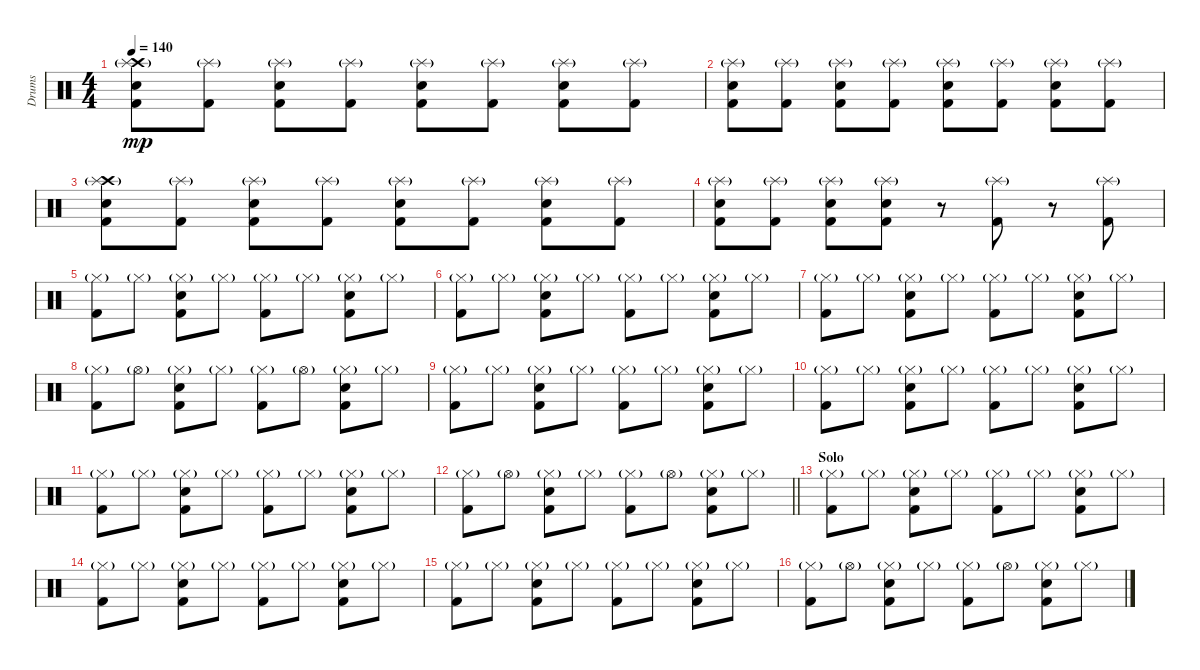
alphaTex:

\track ("Drums" "Drums") {instrument percussion}
\staff {score}
\articulation defaults
\ts (4 4)
\tempo 140
\clef neutral
\ks c
("Crash high (hit)" "Splash (hit)"{g} "Electric Snare (hit)" "Kick (hit) 2").8{dy mp} ("Splash (hit)"{g} "Kick (hit) 2").8 ("Splash (hit)"{g} "Electric Snare (hit)" "Kick (hit) 2").8 ("Splash (hit)"{g} "Kick (hit) 2").8 ("Splash (hit)"{g} "Electric Snare (hit)" "Kick (hit) 2").8 ("Splash (hit)"{g} "Kick (hit) 2").8 ("Splash (hit)"{g} "Electric Snare (hit)" "Kick (hit) 2").8 ("Splash (hit)"{g} "Kick (hit) 2").8 |
("Splash (hit)"{g} "Electric Snare (hit)" "Kick (hit) 2").8 ("Splash (hit)"{g} "Kick (hit) 2").8 ("Splash (hit)"{g} "Electric Snare (hit)" "Kick (hit) 2").8 ("Splash (hit)"{g} "Kick (hit) 2").8 ("Splash (hit)"{g} "Electric Snare (hit)" "Kick (hit) 2").8 ("Splash (hit)"{g} "Kick (hit) 2").8 ("Splash (hit)"{g} "Electric Snare (hit)" "Kick (hit) 2").8 ("Splash (hit)"{g} "Kick (hit) 2").8 |
("Crash high (hit)" "Splash (hit)"{g} "Electric Snare (hit)" "Kick (hit) 2").8 ("Splash (hit)"{g} "Kick (hit) 2").8 ("Splash (hit)"{g} "Electric Snare (hit)" "Kick (hit) 2").8 ("Splash (hit)"{g} "Kick (hit) 2").8 ("Splash (hit)"{g} "Electric Snare (hit)" "Kick (hit) 2").8 ("Splash (hit)"{g} "Kick (hit) 2").8 ("Splash (hit)"{g} "Electric Snare (hit)" "Kick (hit) 2").8 ("Splash (hit)"{g} "Kick (hit) 2").8 |
("Splash (hit)"{g} "Electric Snare (hit)" "Kick (hit) 2").8 ("Splash (hit)"{g} "Kick (hit) 2").8 ("Splash (hit)"{g} "Electric Snare (hit)" "Kick (hit) 2").8 ("Splash (hit)"{g} "Electric Snare (hit)" "Kick (hit) 2").8 r.8 ("Splash (hit)"{g} "Kick (hit) 2").8 r.8 ("Splash (hit)"{g} "Kick (hit) 2").8 |
("Hi-Hat (closed)"{g} "Kick (hit) 2").8 "Hi-Hat (closed)"{g}.8 ("Hi-Hat (closed)"{g} "Electric Snare (hit)" "Kick (hit) 2").8 "Hi-Hat (closed)"{g}.8 ("Hi-Hat (closed)"{g} "Kick (hit) 2").8 "Hi-Hat (closed)"{g}.8 ("Hi-Hat (closed)"{g} "Electric Snare (hit)" "Kick (hit) 2").8 "Hi-Hat (closed)"{g}.8 |
("Hi-Hat (closed)"{g} "Kick (hit) 2").8 "Hi-Hat (closed)"{g}.8 ("Hi-Hat (closed)"{g} "Electric Snare (hit)" "Kick (hit) 2").8 "Hi-Hat (closed)"{g}.8 ("Hi-Hat (closed)"{g} "Kick (hit) 2").8 "Hi-Hat (closed)"{g}.8 ("Hi-Hat (closed)"{g} "Electric Snare (hit)" "Kick (hit) 2").8 "Hi-Hat (closed)"{g}.8 |
("Hi-Hat (closed)"{g} "Kick (hit) 2").8 "Hi-Hat (closed)"{g}.8 ("Hi-Hat (closed)"{g} "Electric Snare (hit)" "Kick (hit) 2").8 "Hi-Hat (closed)"{g}.8 ("Hi-Hat (closed)"{g} "Kick (hit) 2").8 "Hi-Hat (closed)"{g}.8 ("Hi-Hat (closed)"{g} "Electric Snare (hit)" "Kick (hit) 2").8 "Hi-Hat (closed)"{g}.8 |
("Hi-Hat (closed)"{g} "Kick (hit) 2").8 "Hi-Hat (open)"{g}.8 ("Hi-Hat (closed)"{g} "Electric Snare (hit)" "Kick (hit) 2").8 "Hi-Hat (closed)"{g}.8 ("Hi-Hat (closed)"{g} "Kick (hit) 2").8 "Hi-Hat (open)"{g}.8 ("Hi-Hat (closed)"{g} "Electric Snare (hit)" "Kick (hit) 2").8 "Hi-Hat (closed)"{g}.8 |
("Hi-Hat (closed)"{g} "Kick (hit) 2").8 "Hi-Hat (closed)"{g}.8 ("Hi-Hat (closed)"{g} "Electric Snare (hit)" "Kick (hit) 2").8 "Hi-Hat (closed)"{g}.8 ("Hi-Hat (closed)"{g} "Kick (hit) 2").8 "Hi-Hat (closed)"{g}.8 ("Hi-Hat (closed)"{g} "Electric Snare (hit)" "Kick (hit) 2").8 "Hi-Hat (closed)"{g}.8 |
("Hi-Hat (closed)"{g} "Kick (hit) 2").8 "Hi-Hat (closed)"{g}.8 ("Hi-Hat (closed)"{g} "Electric Snare (hit)" "Kick (hit) 2").8 "Hi-Hat (closed)"{g}.8 ("Hi-Hat (closed)"{g} "Kick (hit) 2").8 "Hi-Hat (closed)"{g}.8 ("Hi-Hat (closed)"{g} "Electric Snare (hit)" "Kick (hit) 2").8 "Hi-Hat (closed)"{g}.8 |
("Hi-Hat (closed)"{g} "Kick (hit) 2").8 "Hi-Hat (closed)"{g}.8 ("Hi-Hat (closed)"{g} "Electric Snare (hit)" "Kick (hit) 2").8 "Hi-Hat (closed)"{g}.8 ("Hi-Hat (closed)"{g} "Kick (hit) 2").8 "Hi-Hat (closed)"{g}.8 ("Hi-Hat (closed)"{g} "Electric Snare (hit)" "Kick (hit) 2").8 "Hi-Hat (closed)"{g}.8 |
\barLineRight lightlight
("Hi-Hat (closed)"{g} "Kick (hit) 2").8 "Hi-Hat (open)"{g}.8 ("Hi-Hat (closed)"{g} "Electric Snare (hit)" "Kick (hit) 2").8 "Hi-Hat (closed)"{g}.8 ("Hi-Hat (closed)"{g} "Kick (hit) 2").8 "Hi-Hat (open)"{g}.8 ("Hi-Hat (closed)"{g} "Electric Snare (hit)" "Kick (hit) 2").8 "Hi-Hat (closed)"{g}.8 |
\section ("" "Solo")
("Hi-Hat (closed)"{g} "Kick (hit) 2").8 "Hi-Hat (closed)"{g}.8 ("Hi-Hat (closed)"{g} "Electric Snare (hit)" "Kick (hit) 2").8 "Hi-Hat (closed)"{g}.8 ("Hi-Hat (closed)"{g} "Kick (hit) 2").8 "Hi-Hat (closed)"{g}.8 ("Hi-Hat (closed)"{g} "Electric Snare (hit)" "Kick (hit) 2").8 "Hi-Hat (closed)"{g}.8 |
("Hi-Hat (closed)"{g} "Kick (hit) 2").8 "Hi-Hat (closed)"{g}.8 ("Hi-Hat (closed)"{g} "Electric Snare (hit)" "Kick (hit) 2").8 "Hi-Hat (closed)"{g}.8 ("Hi-Hat (closed)"{g} "Kick (hit) 2").8 "Hi-Hat (closed)"{g}.8 ("Hi-Hat (closed)"{g} "Electric Snare (hit)" "Kick (hit) 2").8 "Hi-Hat (closed)"{g}.8 |
("Hi-Hat (closed)"{g} "Kick (hit) 2").8 "Hi-Hat (closed)"{g}.8 ("Hi-Hat (closed)"{g} "Electric Snare (hit)" "Kick (hit) 2").8 "Hi-Hat (closed)"{g}.8 ("Hi-Hat (closed)"{g} "Kick (hit) 2").8 "Hi-Hat (closed)"{g}.8 ("Hi-Hat (closed)"{g} "Electric Snare (hit)" "Kick (hit) 2").8 "Hi-Hat (closed)"{g}.8 |
("Hi-Hat (closed)"{g} "Kick (hit) 2").8 "Hi-Hat (open)"{g}.8 ("Hi-Hat (closed)"{g} "Electric Snare (hit)" "Kick (hit) 2").8 "Hi-Hat (closed)"{g}.8 ("Hi-Hat (closed)"{g} "Kick (hit) 2").8 "Hi-Hat (open)"{g}.8 ("Hi-Hat (closed)"{g} "Electric Snare (hit)" "Kick (hit) 2").8 "Hi-Hat (closed)"{g}.8
